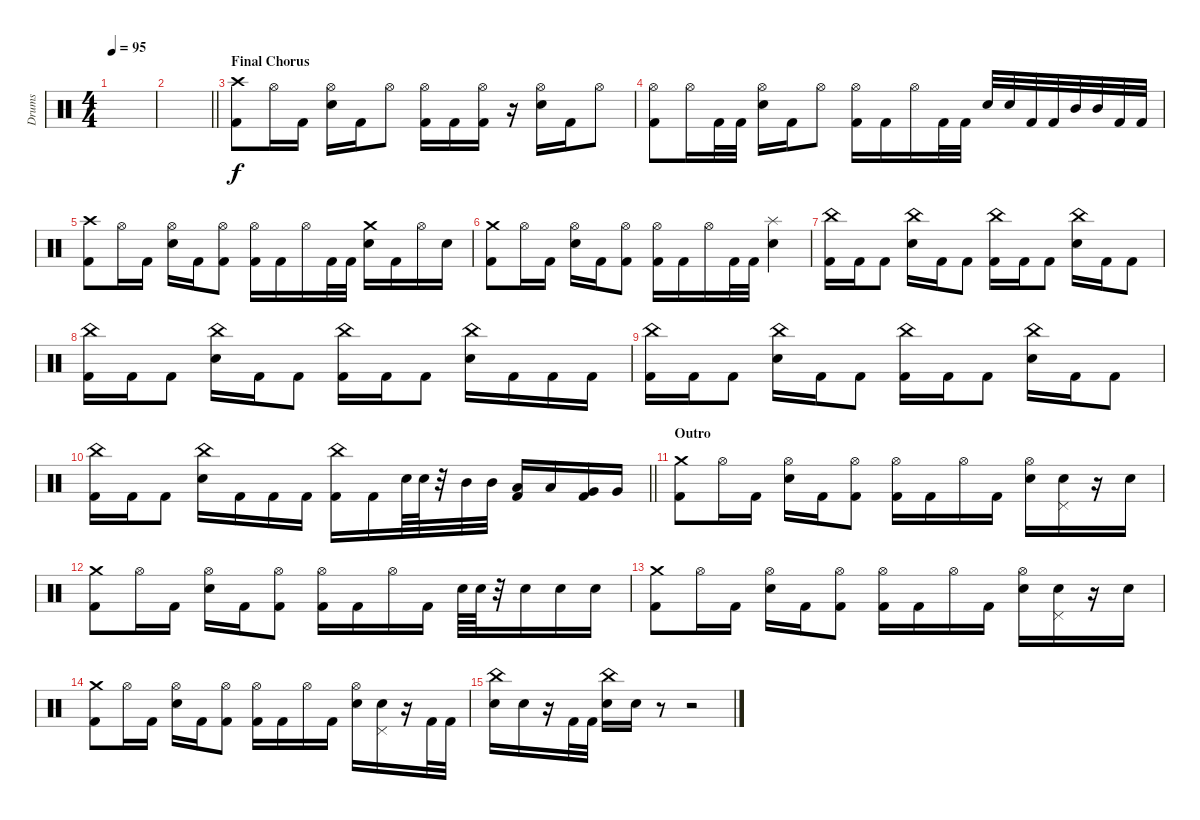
\track ("Drums" "Drums") {instrument percussion}
\staff {score}
\articulation defaults
\ts (4 4)
\tempo 95
\clef neutral
\ks c
|
\barLineRight lightlight
|
\section ("" "Final Chorus")
("Crash high (hit)" "Kick (hit) 2").8 "Hi-Hat (open)".16 "Kick (hit) 2".16 ("Hi-Hat (open)" "Electric Snare (hit)").16 "Kick (hit) 2".16 "Hi-Hat (open)".8 ("Hi-Hat (open)" "Kick (hit) 2").16 "Kick (hit) 2".16 ("Hi-Hat (open)" "Kick (hit) 2").16 r.16 ("Hi-Hat (open)" "Electric Snare (hit)").16 "Kick (hit) 2".16 "Hi-Hat (open)".8 |
("Hi-Hat (open)" "Kick (hit) 2").8 "Hi-Hat (open)".16 "Kick (hit) 2".32 "Kick (hit) 2".32 ("Hi-Hat (open)" "Electric Snare (hit)").16 "Kick (hit) 2".16 "Hi-Hat (open)".8 ("Hi-Hat (open)" "Kick (hit) 2").16 "Kick (hit) 2".16 "Hi-Hat (open)".16 "Kick (hit) 2".32 "Kick (hit) 2".32 "Electric Snare (hit)".32 "Electric Snare (hit)".32 "Kick (hit) 2".32 "Kick (hit) 2".32 "Mid Tom (hit)".32 "Mid Tom (hit)".32 "Kick (hit) 2".32 "Kick (hit) 2".32 |
("Crash high (hit)" "Kick (hit) 2").8 "Hi-Hat (open)".16 "Kick (hit) 2".16 ("Hi-Hat (open)" "Electric Snare (hit)").16 "Kick (hit) 2".16 ("Hi-Hat (open)" "Kick (hit) 2").8 ("Hi-Hat (open)" "Kick (hit) 2").16 "Kick (hit) 2".16 "Hi-Hat (open)".16 "Kick (hit) 2".32 "Kick (hit) 2".32 ("Crash medium (hit)" "Electric Snare (hit)").16 "Kick (hit) 2".16 "Hi-Hat (open)".16 "Electric Snare (hit)".16 |
("Crash medium (hit)" "Kick (hit) 2").8 "Hi-Hat (open)".16 "Kick (hit) 2".16 ("Hi-Hat (open)" "Electric Snare (hit)").16 "Kick (hit) 2".16 ("Hi-Hat (open)" "Kick (hit) 2").8 ("Hi-Hat (open)" "Kick (hit) 2").16 "Kick (hit) 2".16 "Hi-Hat (open)".16 "Kick (hit) 2".32 "Kick (hit) 2".32 ("Splash (hit)" "Electric Snare (hit)").4 |
("China (hit)" "Kick (hit) 2").16 "Kick (hit) 2".16 "Kick (hit) 2".8 ("China (hit)" "Electric Snare (hit)").16 "Kick (hit) 2".16 "Kick (hit) 2".8 ("China (hit)" "Kick (hit) 2").16 "Kick (hit) 2".16 "Kick (hit) 2".8 ("China (hit)" "Electric Snare (hit)").16 "Kick (hit) 2".16 "Kick (hit) 2".8 |
("China (hit)" "Kick (hit) 2").16 "Kick (hit) 2".16 "Kick (hit) 2".8 ("China (hit)" "Electric Snare (hit)").16 "Kick (hit) 2".16 "Kick (hit) 2".8 ("China (hit)" "Kick (hit) 2").16 "Kick (hit) 2".16 "Kick (hit) 2".8 ("China (hit)" "Electric Snare (hit)").16 "Kick (hit) 2".16 "Kick (hit) 2".16 "Kick (hit) 2".16 |
("China (hit)" "Kick (hit) 2").16 "Kick (hit) 2".16 "Kick (hit) 2".8 ("China (hit)" "Electric Snare (hit)").16 "Kick (hit) 2".16 "Kick (hit) 2".8 ("China (hit)" "Kick (hit) 2").16 "Kick (hit) 2".16 "Kick (hit) 2".8 ("China (hit)" "Electric Snare (hit)").16 "Kick (hit) 2".16 "Kick (hit) 2".8 |
\barLineRight lightlight
("China (hit)" "Kick (hit) 2").16 "Kick (hit) 2".16 "Kick (hit) 2".8 ("China (hit)" "Electric Snare (hit)").16 "Kick (hit) 2".16 "Kick (hit) 2".16 "Kick (hit) 2".16 ("China (hit)" "Kick (hit) 2").16 "Kick (hit) 2".16 "Electric Snare (hit)".64 "Electric Snare (hit)".64 r.32 "Mid Tom (hit)".32 "Mid Tom (hit)".32 ("Low Tom (hit)" "Kick (hit) 2").16 "Low Tom (hit)".16 ("Very Low Tom (hit)" "Kick (hit) 2").16 "Very Low Tom (hit)".16 |
\section ("" "Outro")
("Crash medium (hit)" "Kick (hit) 2").8 "Hi-Hat (open)".16 "Kick (hit) 2".16 ("Hi-Hat (open)" "Electric Snare (hit)").16 "Kick (hit) 2".16 ("Hi-Hat (open)" "Kick (hit) 2").8 ("Hi-Hat (open)" "Kick (hit) 2").16 "Kick (hit) 2".16 "Hi-Hat (open)".16 "Kick (hit) 2".16 ("Hi-Hat (open)" "Electric Snare (hit)").16 ("Electric Snare (hit)" "Pedal Hi-Hat (hit)").16 r.16 "Electric Snare (hit)".16 |
("Crash medium (hit)" "Kick (hit) 2").8 "Hi-Hat (open)".16 "Kick (hit) 2".16 ("Hi-Hat (open)" "Electric Snare (hit)").16 "Kick (hit) 2".16 ("Hi-Hat (open)" "Kick (hit) 2").8 ("Hi-Hat (open)" "Kick (hit) 2").16 "Kick (hit) 2".16 "Hi-Hat (open)".16 "Kick (hit) 2".16 "Electric Snare (hit)".64 "Electric Snare (hit)".64 r.32 "Electric Snare (hit)".16 "Electric Snare (hit)".16 "Electric Snare (hit)".16 |
("Crash medium (hit)" "Kick (hit) 2").8 "Hi-Hat (open)".16 "Kick (hit) 2".16 ("Hi-Hat (open)" "Electric Snare (hit)").16 "Kick (hit) 2".16 ("Hi-Hat (open)" "Kick (hit) 2").8 ("Hi-Hat (open)" "Kick (hit) 2").16 "Kick (hit) 2".16 "Hi-Hat (open)".16 "Kick (hit) 2".16 ("Hi-Hat (open)" "Electric Snare (hit)").16 ("Electric Snare (hit)" "Pedal Hi-Hat (hit)").16 r.16 "Electric Snare (hit)".16 |
("Crash medium (hit)" "Kick (hit) 2").8 "Hi-Hat (open)".16 "Kick (hit) 2".16 ("Hi-Hat (open)" "Electric Snare (hit)").16 "Kick (hit) 2".16 ("Hi-Hat (open)" "Kick (hit) 2").8 ("Hi-Hat (open)" "Kick (hit) 2").16 "Kick (hit) 2".16 "Hi-Hat (open)".16 "Kick (hit) 2".16 ("Hi-Hat (open)" "Electric Snare (hit)").16 ("Electric Snare (hit)" "Pedal Hi-Hat (hit)").16 r.16 "Kick (hit) 2".32 "Kick (hit) 2".32 |
("China (hit)" "Electric Snare (hit)").16 "Electric Snare (hit)".16 r.16 "Kick (hit) 2".32 "Kick (hit) 2".32 ("China (hit)" "Electric Snare (hit)").16 "Electric Snare (hit)".16 r.8 r.2
